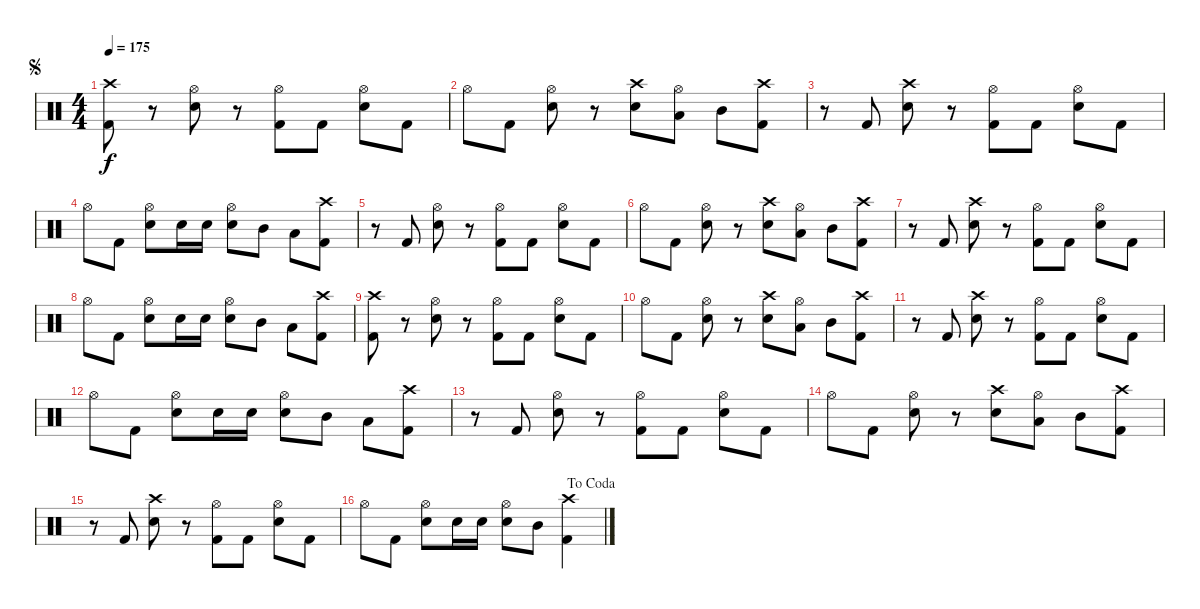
\track "" {instrument percussion}
\staff {score}
\articulation defaults
\ts (4 4)
\jump segno
\tempo 175
\clef neutral
\ks c
("Crash high (hit)" "Kick (hit) 2").8{dy f} r.8 ("Hi-Hat (open)" "Electric Snare (hit)").8 r.8 ("Hi-Hat (open)" "Kick (hit) 2").8 "Kick (hit) 2".8 ("Hi-Hat (open)" "Electric Snare (hit)").8 "Kick (hit) 2".8 |
"Hi-Hat (open)".8 "Kick (hit) 2".8 ("Hi-Hat (open)" "Electric Snare (hit)").8 r.8 ("Crash high (hit)" "Electric Snare (hit)").8 ("Hi-Hat (open)" "Low Tom (hit)").8 "Mid Tom (hit)".8 ("Crash high (hit)" "Kick (hit) 2").8 |
r.8 "Kick (hit) 2".8 ("Crash high (hit)" "Electric Snare (hit)").8 r.8 ("Hi-Hat (open)" "Kick (hit) 2").8 "Kick (hit) 2".8 ("Hi-Hat (open)" "Electric Snare (hit)").8 "Kick (hit) 2".8 |
"Hi-Hat (open)".8 "Kick (hit) 2".8 ("Hi-Hat (open)" "Electric Snare (hit)").8 "Electric Snare (hit)".16 "Electric Snare (hit)".16 ("Hi-Hat (open)" "Electric Snare (hit)").8 "Mid Tom (hit)".8 "Low Tom (hit)".8 ("Crash high (hit)" "Kick (hit) 2").8 |
r.8 "Kick (hit) 2".8 ("Hi-Hat (open)" "Electric Snare (hit)").8 r.8 ("Hi-Hat (open)" "Kick (hit) 2").8 "Kick (hit) 2".8 ("Hi-Hat (open)" "Electric Snare (hit)").8 "Kick (hit) 2".8 |
"Hi-Hat (open)".8 "Kick (hit) 2".8 ("Hi-Hat (open)" "Electric Snare (hit)").8 r.8 ("Crash high (hit)" "Electric Snare (hit)").8 ("Hi-Hat (open)" "Low Tom (hit)").8 "Mid Tom (hit)".8 ("Crash high (hit)" "Kick (hit) 2").8 |
r.8 "Kick (hit) 2".8 ("Crash high (hit)" "Electric Snare (hit)").8 r.8 ("Hi-Hat (open)" "Kick (hit) 2").8 "Kick (hit) 2".8 ("Hi-Hat (open)" "Electric Snare (hit)").8 "Kick (hit) 2".8 |
"Hi-Hat (open)".8 "Kick (hit) 2".8 ("Hi-Hat (open)" "Electric Snare (hit)").8 "Electric Snare (hit)".16 "Electric Snare (hit)".16 ("Hi-Hat (open)" "Electric Snare (hit)").8 "Mid Tom (hit)".8 "Low Tom (hit)".8 ("Crash high (hit)" "Kick (hit) 2").8 |
("Crash high (hit)" "Kick (hit) 2").8 r.8 ("Hi-Hat (open)" "Electric Snare (hit)").8 r.8 ("Hi-Hat (open)" "Kick (hit) 2").8 "Kick (hit) 2".8 ("Hi-Hat (open)" "Electric Snare (hit)").8 "Kick (hit) 2".8 |
"Hi-Hat (open)".8 "Kick (hit) 2".8 ("Hi-Hat (open)" "Electric Snare (hit)").8 r.8 ("Crash high (hit)" "Electric Snare (hit)").8 ("Hi-Hat (open)" "Low Tom (hit)").8 "Mid Tom (hit)".8 ("Crash high (hit)" "Kick (hit) 2").8 |
r.8 "Kick (hit) 2".8 ("Crash high (hit)" "Electric Snare (hit)").8 r.8 ("Hi-Hat (open)" "Kick (hit) 2").8 "Kick (hit) 2".8 ("Hi-Hat (open)" "Electric Snare (hit)").8 "Kick (hit) 2".8 |
"Hi-Hat (open)".8 "Kick (hit) 2".8 ("Hi-Hat (open)" "Electric Snare (hit)").8 "Electric Snare (hit)".16 "Electric Snare (hit)".16 ("Hi-Hat (open)" "Electric Snare (hit)").8 "Mid Tom (hit)".8 "Low Tom (hit)".8 ("Crash high (hit)" "Kick (hit) 2").8 |
r.8 "Kick (hit) 2".8 ("Hi-Hat (open)" "Electric Snare (hit)").8 r.8 ("Hi-Hat (open)" "Kick (hit) 2").8 "Kick (hit) 2".8 ("Hi-Hat (open)" "Electric Snare (hit)").8 "Kick (hit) 2".8 |
"Hi-Hat (open)".8 "Kick (hit) 2".8 ("Hi-Hat (open)" "Electric Snare (hit)").8 r.8 ("Crash high (hit)" "Electric Snare (hit)").8 ("Hi-Hat (open)" "Low Tom (hit)").8 "Mid Tom (hit)".8 ("Crash high (hit)" "Kick (hit) 2").8 |
r.8 "Kick (hit) 2".8 ("Crash high (hit)" "Electric Snare (hit)").8 r.8 ("Hi-Hat (open)" "Kick (hit) 2").8 "Kick (hit) 2".8 ("Hi-Hat (open)" "Electric Snare (hit)").8 "Kick (hit) 2".8 |
\jump dacoda "Hi-Hat (open)".8 "Kick (hit) 2".8
("Hi-Hat (open)" "Electric Snare (hit)").8 "Electric Snare (hit)".16 "Electric Snare (hit)".16 ("Hi-Hat (open)" "Electric Snare (hit)").8 "Mid Tom (hit)".8 ("Crash high (hit)" "Kick (hit) 2").4
